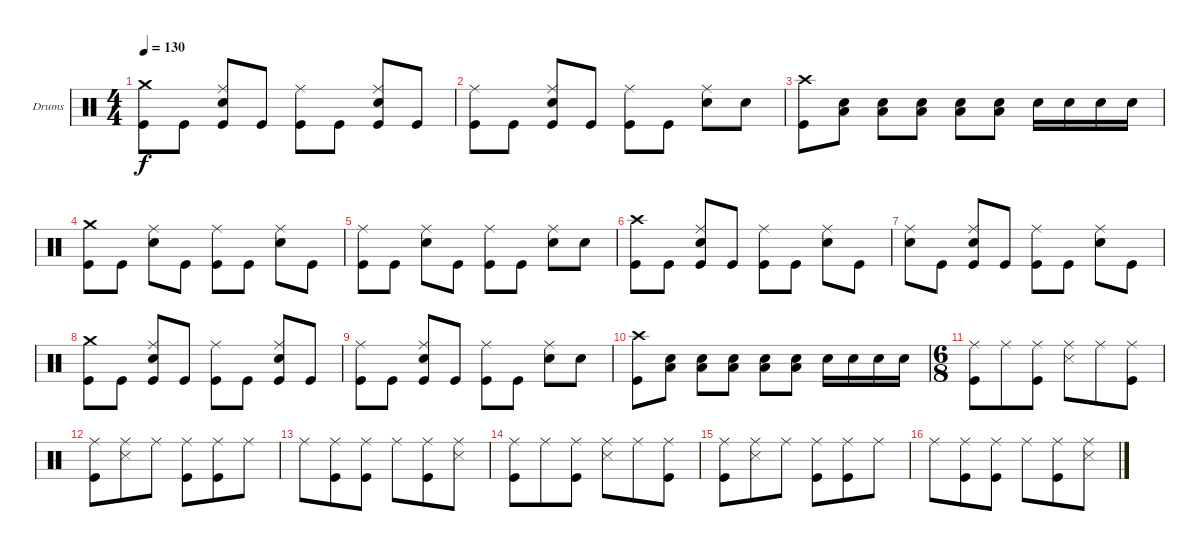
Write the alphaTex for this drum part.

\bracketExtendMode groupsimilarinstruments
\firstSystemTrackNameOrientation horizontal
\otherSystemsTrackNameOrientation horizontal
\track ("Drumkit" "Drums") {instrument percussion}
\staff {score}
\articulation defaults
\ts (4 4)
\tempo 130
\clef neutral
\ks c
("Kick (hit)" "Crash medium (hit)").8{dy f} "Kick (hit)".8 ("Ride (middle)" "Kick (hit)" "Snare (hit) 2").8 "Kick (hit)".8 ("Ride (middle)" "Kick (hit)").8 "Kick (hit)".8 ("Kick (hit)" "Snare (hit) 2" "Ride (middle)").8 "Kick (hit)".8 |
("Ride (middle)" "Kick (hit)").8 "Kick (hit)".8 ("Kick (hit)" "Snare (hit) 2" "Ride (middle)").8 "Kick (hit)".8 ("Kick (hit)" "Ride (middle)").8 "Kick (hit)".8 ("Ride (middle)" "Snare (hit) 2").8 "Snare (hit) 2".8 |
("Kick (hit)" "Crash high (hit)").8 ("Snare (hit) 2" "Low Tom (hit)").8 ("Low Tom (hit)" "Snare (hit) 2").8 ("Snare (hit) 2" "Low Tom (hit)").8 ("Snare (hit) 2" "Low Tom (hit)").8 ("Low Tom (hit)" "Snare (hit) 2").8 "Snare (hit) 2".16 "Snare (hit) 2".16 "Snare (hit) 2".16 "Snare (hit) 2".16 |
("Crash medium (hit)" "Kick (hit)").8 "Kick (hit)".8 ("Ride (middle)" "Snare (hit) 2").8 "Kick (hit)".8 ("Ride (middle)" "Kick (hit)").8 "Kick (hit)".8 ("Ride (middle)" "Snare (hit) 2").8 "Kick (hit)".8 |
("Kick (hit)" "Ride (middle)").8 "Kick (hit)".8 ("Ride (middle)" "Snare (hit) 2").8 "Kick (hit)".8 ("Kick (hit)" "Ride (middle)").8 "Kick (hit)".8 ("Snare (hit) 2" "Ride (middle)").8 "Snare (hit) 2".8 |
("Crash high (hit)" "Kick (hit)").8 "Kick (hit)".8 ("Ride (middle)" "Kick (hit)" "Snare (hit) 2").8 "Kick (hit)".8 ("Kick (hit)" "Ride (middle)").8 "Kick (hit)".8 ("Ride (middle)" "Snare (hit) 2").8 "Kick (hit)".8 |
("Ride (middle)" "Snare (hit) 2").8 "Kick (hit)".8 ("Ride (middle)" "Snare (hit) 2" "Kick (hit)").8 "Kick (hit)".8 ("Ride (middle)" "Kick (hit)").8 "Kick (hit)".8 ("Ride (middle)" "Snare (hit) 2").8 "Kick (hit)".8 |
("Kick (hit)" "Crash medium (hit)").8 "Kick (hit)".8 ("Ride (middle)" "Kick (hit)" "Snare (hit) 2").8 "Kick (hit)".8 ("Ride (middle)" "Kick (hit)").8 "Kick (hit)".8 ("Kick (hit)" "Snare (hit) 2" "Ride (middle)").8 "Kick (hit)".8 |
("Ride (middle)" "Kick (hit)").8 "Kick (hit)".8 ("Kick (hit)" "Snare (hit) 2" "Ride (middle)").8 "Kick (hit)".8 ("Kick (hit)" "Ride (middle)").8 "Kick (hit)".8 ("Ride (middle)" "Snare (hit) 2").8 "Snare (hit) 2".8 |
("Kick (hit)" "Crash high (hit)").8 ("Snare (hit) 2" "Low Tom (hit)").8 ("Low Tom (hit)" "Snare (hit) 2").8 ("Snare (hit) 2" "Low Tom (hit)").8 ("Snare (hit) 2" "Low Tom (hit)").8 ("Low Tom (hit)" "Snare (hit) 2").8 "Snare (hit) 2".16 "Snare (hit) 2".16 "Snare (hit) 2".16 "Snare (hit) 2".16 |
\ts (6 8)
("Ride (middle)" "Kick (hit)").8 "Ride (middle)".8 ("Ride (middle)" "Kick (hit)").8 ("Snare (side stick) 3" "Ride (middle)").8 "Ride (middle)".8 ("Kick (hit)" "Ride (middle)").8 |
("Ride (middle)" "Kick (hit)").8 ("Ride (middle)" "Snare (side stick) 3").8 "Ride (middle)".8 ("Kick (hit)" "Ride (middle)").8 ("Ride (middle)" "Kick (hit)").8 "Ride (middle)".8 |
"Ride (middle)".8 ("Kick (hit)" "Ride (middle)").8 ("Ride (middle)" "Kick (hit)").8 "Ride (middle)".8 ("Ride (middle)" "Kick (hit)").8 ("Snare (side stick) 3" "Ride (middle)").8 |
("Ride (middle)" "Kick (hit)").8 "Ride (middle)".8 ("Ride (middle)" "Kick (hit)").8 ("Snare (side stick) 3" "Ride (middle)").8 "Ride (middle)".8 ("Kick (hit)" "Ride (middle)").8 |
("Ride (middle)" "Kick (hit)").8 ("Ride (middle)" "Snare (side stick) 3").8 "Ride (middle)".8 ("Kick (hit)" "Ride (middle)").8 ("Ride (middle)" "Kick (hit)").8 "Ride (middle)".8 |
"Ride (middle)".8 ("Kick (hit)" "Ride (middle)").8 ("Ride (middle)" "Kick (hit)").8 "Ride (middle)".8 ("Ride (middle)" "Kick (hit)").8 ("Snare (side stick) 3" "Ride (middle)").8
